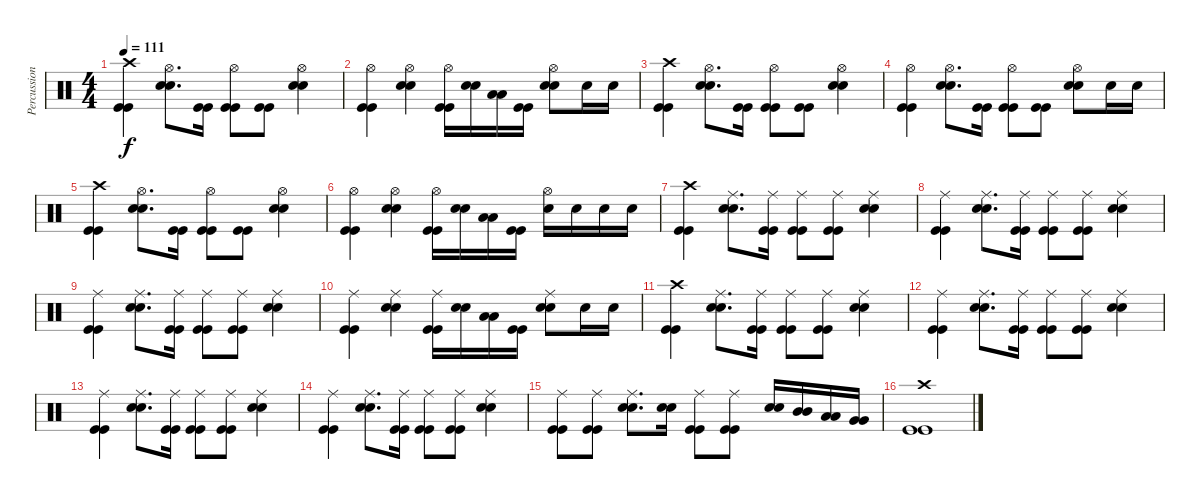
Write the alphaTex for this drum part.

\track ("Percussioni" "Percussion") {instrument percussion}
\staff {score}
\articulation defaults
\ts (4 4)
\tempo 111
\clef neutral
\ks c
("Crash high (hit)" "Kick (hit)" "Kick (hit)").4{dy f} ("Hi-Hat (open)" "Snare (hit) 2" "Snare (hit) 2").8{d} ("Kick (hit)" "Kick (hit)").16 ("Hi-Hat (open)" "Kick (hit)" "Kick (hit)").8 ("Kick (hit)" "Kick (hit)").8 ("Hi-Hat (open)" "Snare (hit) 2" "Snare (hit) 2").4 |
("Hi-Hat (open)" "Kick (hit)" "Kick (hit)").4 ("Hi-Hat (open)" "Snare (hit) 2" "Snare (hit) 2").4 ("Hi-Hat (open)" "Kick (hit)" "Kick (hit)").16 ("Snare (hit) 2" "Snare (hit) 2").16 ("Low Tom (hit)" "Low Tom (hit)").16 ("Kick (hit)" "Kick (hit)").16 ("Hi-Hat (open)" "Snare (hit) 2" "Snare (hit) 2").8 "Snare (hit) 2".16 "Snare (hit) 2".16 |
("Crash high (hit)" "Kick (hit)" "Kick (hit)").4 ("Hi-Hat (open)" "Snare (hit) 2" "Snare (hit) 2").8{d} ("Kick (hit)" "Kick (hit)").16 ("Hi-Hat (open)" "Kick (hit)" "Kick (hit)").8 ("Kick (hit)" "Kick (hit)").8 ("Hi-Hat (open)" "Snare (hit) 2" "Snare (hit) 2").4 |
("Hi-Hat (open)" "Kick (hit)" "Kick (hit)").4 ("Hi-Hat (open)" "Snare (hit) 2" "Snare (hit) 2").8{d} ("Kick (hit)" "Kick (hit)").16 ("Hi-Hat (open)" "Kick (hit)" "Kick (hit)").8 ("Kick (hit)" "Kick (hit)").8 ("Hi-Hat (open)" "Snare (hit) 2" "Snare (hit) 2").8 "Snare (hit) 2".16 "Snare (hit) 2".16 |
("Crash high (hit)" "Kick (hit)" "Kick (hit)").4 ("Hi-Hat (open)" "Snare (hit) 2" "Snare (hit) 2").8{d} ("Kick (hit)" "Kick (hit)").16 ("Hi-Hat (open)" "Kick (hit)" "Kick (hit)").8 ("Kick (hit)" "Kick (hit)").8 ("Hi-Hat (open)" "Snare (hit) 2" "Snare (hit) 2").4 |
("Hi-Hat (open)" "Kick (hit)" "Kick (hit)").4 ("Hi-Hat (open)" "Snare (hit) 2" "Snare (hit) 2").4 ("Hi-Hat (open)" "Kick (hit)" "Kick (hit)").16 ("Snare (hit) 2" "Snare (hit) 2").16 ("Low Tom (hit)" "Low Tom (hit)").16 ("Kick (hit)" "Kick (hit)").16 ("Hi-Hat (open)" "Snare (hit) 2").16 "Snare (hit) 2".16 "Snare (hit) 2".16 "Snare (hit) 2".16 |
("Crash high (hit)" "Kick (hit)" "Kick (hit)").4 ("Ride (middle)" "Snare (hit) 2" "Snare (hit) 2").8{d} ("Ride (middle)" "Kick (hit)" "Kick (hit)").16 ("Ride (middle)" "Kick (hit)" "Kick (hit)").8 ("Ride (middle)" "Kick (hit)" "Kick (hit)").8 ("Ride (middle)" "Snare (hit) 2" "Snare (hit) 2").4 |
("Ride (middle)" "Kick (hit)" "Kick (hit)").4 ("Ride (middle)" "Snare (hit) 2" "Snare (hit) 2").8{d} ("Ride (middle)" "Kick (hit)" "Kick (hit)").16 ("Ride (middle)" "Kick (hit)" "Kick (hit)").8 ("Ride (middle)" "Kick (hit)" "Kick (hit)").8 ("Ride (middle)" "Snare (hit) 2" "Snare (hit) 2").4 |
("Ride (middle)" "Kick (hit)" "Kick (hit)").4 ("Ride (middle)" "Snare (hit) 2" "Snare (hit) 2").8{d} ("Ride (middle)" "Kick (hit)" "Kick (hit)").16 ("Ride (middle)" "Kick (hit)" "Kick (hit)").8 ("Ride (middle)" "Kick (hit)" "Kick (hit)").8 ("Ride (middle)" "Snare (hit) 2" "Snare (hit) 2").4 |
("Ride (middle)" "Kick (hit)" "Kick (hit)").4 ("Ride (middle)" "Snare (hit) 2" "Snare (hit) 2").4 ("Ride (middle)" "Kick (hit)" "Kick (hit)").16 ("Snare (hit) 2" "Snare (hit) 2").16 ("Low Tom (hit)" "Low Tom (hit)").16 ("Kick (hit)" "Kick (hit)").16 ("Ride (middle)" "Snare (hit) 2" "Snare (hit) 2").8 "Snare (hit) 2".16 "Snare (hit) 2".16 |
("Crash high (hit)" "Kick (hit)" "Kick (hit)").4 ("Ride (middle)" "Snare (hit) 2" "Snare (hit) 2").8{d} ("Ride (middle)" "Kick (hit)" "Kick (hit)").16 ("Ride (middle)" "Kick (hit)" "Kick (hit)").8 ("Ride (middle)" "Kick (hit)" "Kick (hit)").8 ("Ride (middle)" "Snare (hit) 2" "Snare (hit) 2").4 |
("Ride (middle)" "Kick (hit)" "Kick (hit)").4 ("Ride (middle)" "Snare (hit) 2" "Snare (hit) 2").8{d} ("Ride (middle)" "Kick (hit)" "Kick (hit)").16 ("Ride (middle)" "Kick (hit)" "Kick (hit)").8 ("Ride (middle)" "Kick (hit)" "Kick (hit)").8 ("Ride (middle)" "Snare (hit) 2" "Snare (hit) 2").4 |
("Ride (middle)" "Kick (hit)" "Kick (hit)").4 ("Ride (middle)" "Snare (hit) 2" "Snare (hit) 2").8{d} ("Ride (middle)" "Kick (hit)" "Kick (hit)").16 ("Ride (middle)" "Kick (hit)" "Kick (hit)").8 ("Ride (middle)" "Kick (hit)" "Kick (hit)").8 ("Ride (middle)" "Snare (hit) 2" "Snare (hit) 2").4 |
("Ride (middle)" "Kick (hit)" "Kick (hit)").4 ("Ride (middle)" "Snare (hit) 2" "Snare (hit) 2").8{d} ("Ride (middle)" "Kick (hit)" "Kick (hit)").16 ("Ride (middle)" "Kick (hit)" "Kick (hit)").8 ("Ride (middle)" "Kick (hit)" "Kick (hit)").8 ("Ride (middle)" "Snare (hit) 2" "Snare (hit) 2").4 |
("Ride (middle)" "Kick (hit)" "Kick (hit)").8 ("Ride (middle)" "Kick (hit)" "Kick (hit)").8 ("Ride (middle)" "Snare (hit) 2" "Snare (hit) 2").8{d} ("Snare (hit) 2" "Snare (hit) 2").16 ("Ride (middle)" "Kick (hit)" "Kick (hit)").8 ("Ride (middle)" "Kick (hit)" "Kick (hit)").8 ("Snare (hit) 2" "Snare (hit) 2").16 ("Mid Tom (hit)" "Mid Tom (hit)").16 ("Low Tom (hit)" "Low Tom (hit)").16 ("Very Low Tom (hit)" "Very Low Tom (hit)").16 |
("Crash high (hit)" "Kick (hit)" "Kick (hit)").1
